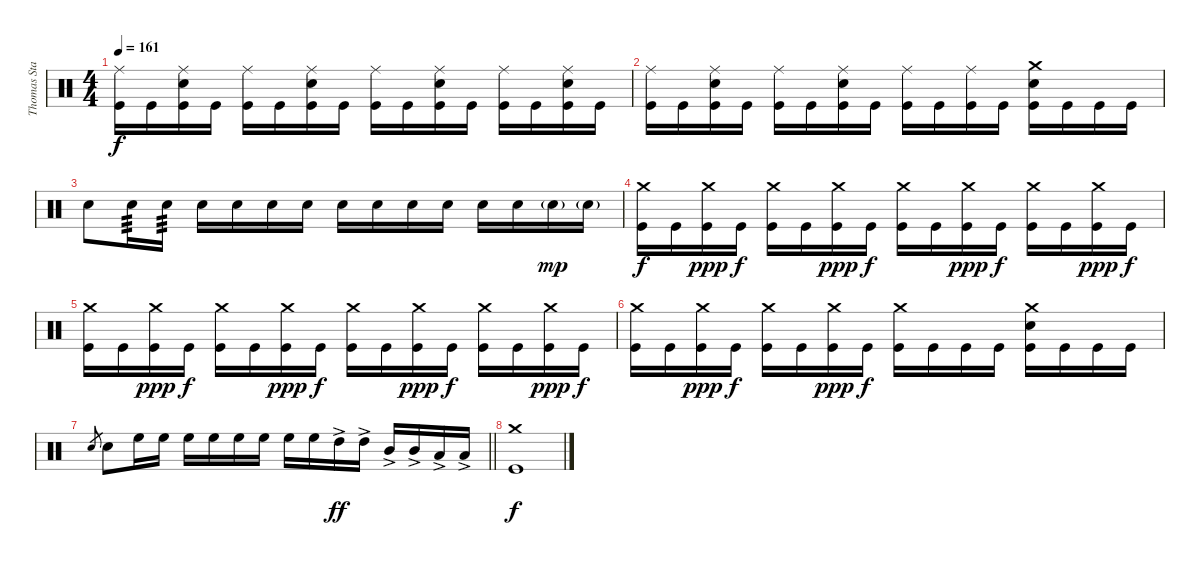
\track ("Thomas Stauch" "Thomas Sta") {instrument percussion}
\staff {score}
\articulation defaults
\ts (4 4)
\tempo 161
\clef neutral
\ks c
("Ride (middle)" "Kick (hit)").16{dy f} "Kick (hit)".16 ("Ride (middle)" "Electric Snare (hit)" "Kick (hit)").16 "Kick (hit)".16 ("Ride (middle)" "Kick (hit)").16 "Kick (hit)".16 ("Ride (middle)" "Electric Snare (hit)" "Kick (hit)").16 "Kick (hit)".16 ("Ride (middle)" "Kick (hit)").16 "Kick (hit)".16 ("Ride (middle)" "Electric Snare (hit)" "Kick (hit)").16 "Kick (hit)".16 ("Ride (middle)" "Kick (hit)").16 "Kick (hit)".16 ("Ride (middle)" "Electric Snare (hit)" "Kick (hit)").16 "Kick (hit)".16 |
("Ride (middle)" "Kick (hit)").16 "Kick (hit)".16 ("Ride (middle)" "Electric Snare (hit)" "Kick (hit)").16 "Kick (hit)".16 ("Ride (middle)" "Kick (hit)").16 "Kick (hit)".16 ("Ride (middle)" "Electric Snare (hit)" "Kick (hit)").16 "Kick (hit)".16 ("Ride (middle)" "Kick (hit)").16 "Kick (hit)".16 ("Ride (middle)" "Kick (hit)").16 "Kick (hit)".16 ("Crash medium (hit)" "Electric Snare (hit)" "Kick (hit)").16 "Kick (hit)".16 "Kick (hit)".16 "Kick (hit)".16 |
"Electric Snare (hit)".8 "Electric Snare (hit)".16{tp 3} "Electric Snare (hit)".16{tp 3} "Electric Snare (hit)".16 "Electric Snare (hit)".16 "Electric Snare (hit)".16 "Electric Snare (hit)".16 "Electric Snare (hit)".16 "Electric Snare (hit)".16 "Electric Snare (hit)".16 "Electric Snare (hit)".16 "Electric Snare (hit)".16 "Electric Snare (hit)".16 "Electric Snare (hit)"{g}.16{dy mp} "Electric Snare (hit)"{g}.16 |
("Crash medium (hit)" "Kick (hit)").16{dy f} "Kick (hit)".16 ("Crash medium (hit)" "Kick (hit)").16{dy ppp} "Kick (hit)".16{dy f} ("Crash medium (hit)" "Kick (hit)").16 "Kick (hit)".16 ("Crash medium (hit)" "Kick (hit)").16{dy ppp} "Kick (hit)".16{dy f} ("Crash medium (hit)" "Kick (hit)").16 "Kick (hit)".16 ("Crash medium (hit)" "Kick (hit)").16{dy ppp} "Kick (hit)".16{dy f} ("Crash medium (hit)" "Kick (hit)").16 "Kick (hit)".16 ("Crash medium (hit)" "Kick (hit)").16{dy ppp} "Kick (hit)".16{dy f} |
("Crash medium (hit)" "Kick (hit)").16 "Kick (hit)".16 ("Crash medium (hit)" "Kick (hit)").16{dy ppp} "Kick (hit)".16{dy f} ("Crash medium (hit)" "Kick (hit)").16 "Kick (hit)".16 ("Crash medium (hit)" "Kick (hit)").16{dy ppp} "Kick (hit)".16{dy f} ("Crash medium (hit)" "Kick (hit)").16 "Kick (hit)".16 ("Crash medium (hit)" "Kick (hit)").16{dy ppp} "Kick (hit)".16{dy f} ("Crash medium (hit)" "Kick (hit)").16 "Kick (hit)".16 ("Crash medium (hit)" "Kick (hit)").16{dy ppp} "Kick (hit)".16{dy f} |
("Crash medium (hit)" "Kick (hit)").16 "Kick (hit)".16 ("Crash medium (hit)" "Kick (hit)").16{dy ppp} "Kick (hit)".16{dy f} ("Crash medium (hit)" "Kick (hit)").16 "Kick (hit)".16 ("Crash medium (hit)" "Kick (hit)").16{dy ppp} "Kick (hit)".16{dy f} ("Crash medium (hit)" "Kick (hit)").16 "Kick (hit)".16 "Kick (hit)".16 "Kick (hit)".16 ("Crash medium (hit)" "Electric Snare (hit)" "Kick (hit)").16 "Kick (hit)".16 "Kick (hit)".16 "Kick (hit)".16 |
\barLineRight lightlight "Electric Snare (hit)".8{gr} "Electric Snare (hit)".8 "High Floor Tom (hit)".16 "High Floor Tom (hit)".16 "High Floor Tom (hit)".16 "High Floor Tom (hit)".16 "High Floor Tom (hit)".16 "High Floor Tom (hit)".16 "High Floor Tom (hit)".16 "High Floor Tom (hit)".16 "High Tom (hit)"{ac}.16{dy ff} "High Tom (hit)"{ac}.16 "Mid Tom (hit)"{ac}.16 "Mid Tom (hit)"{ac}.16 "Low Tom (hit)"{ac}.16 "Low Tom (hit)"{ac}.16
|
("Crash medium (hit)" "Kick (hit)").1{dy f}
